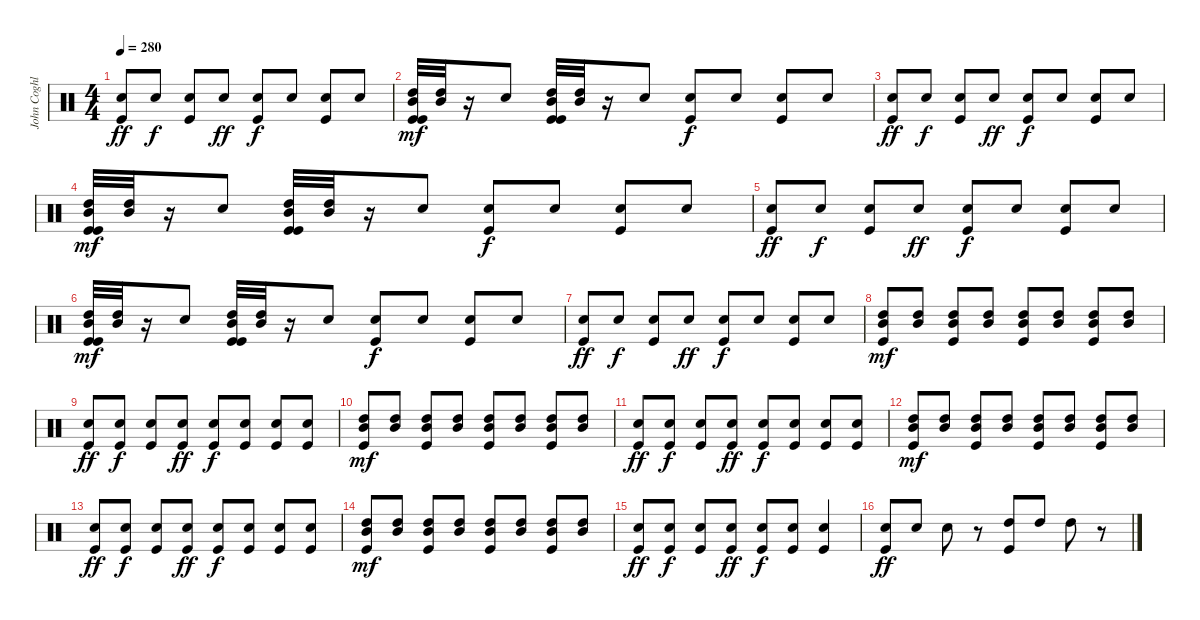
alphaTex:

\track ("John Coghlan" "John Coghl") {instrument percussion}
\staff {score}
\articulation defaults
\ts (4 4)
\tempo 280
\clef neutral
\ks c
("Electric Snare (hit)" "Kick (hit)").8{dy ff} "Electric Snare (hit)".8{dy f} ("Electric Snare (hit)" "Kick (hit)").8 "Electric Snare (hit)".8{dy ff} ("Electric Snare (hit)" "Kick (hit)").8{dy f} "Electric Snare (hit)".8 ("Electric Snare (hit)" "Kick (hit)").8 "Electric Snare (hit)".8 |
("Mid Tom (hit)" "Kick (hit)" "High Tom (hit)" "Kick (hit)").32{dy mf} ("Mid Tom (hit)" "High Tom (hit)").32 r.16 "Electric Snare (hit)".8 ("Mid Tom (hit)" "Kick (hit)" "High Tom (hit)" "Kick (hit)").32 ("Mid Tom (hit)" "High Tom (hit)").32 r.16 "Electric Snare (hit)".8 ("Electric Snare (hit)" "Kick (hit)").8{dy f} "Electric Snare (hit)".8 ("Electric Snare (hit)" "Kick (hit)").8 "Electric Snare (hit)".8 |
("Electric Snare (hit)" "Kick (hit)").8{dy ff} "Electric Snare (hit)".8{dy f} ("Electric Snare (hit)" "Kick (hit)").8 "Electric Snare (hit)".8{dy ff} ("Electric Snare (hit)" "Kick (hit)").8{dy f} "Electric Snare (hit)".8 ("Electric Snare (hit)" "Kick (hit)").8 "Electric Snare (hit)".8 |
("Mid Tom (hit)" "Kick (hit)" "High Tom (hit)" "Kick (hit)").32{dy mf} ("Mid Tom (hit)" "High Tom (hit)").32 r.16 "Electric Snare (hit)".8 ("Mid Tom (hit)" "Kick (hit)" "High Tom (hit)" "Kick (hit)").32 ("Mid Tom (hit)" "High Tom (hit)").32 r.16 "Electric Snare (hit)".8 ("Electric Snare (hit)" "Kick (hit)").8{dy f} "Electric Snare (hit)".8 ("Electric Snare (hit)" "Kick (hit)").8 "Electric Snare (hit)".8 |
("Electric Snare (hit)" "Kick (hit)").8{dy ff} "Electric Snare (hit)".8{dy f} ("Electric Snare (hit)" "Kick (hit)").8 "Electric Snare (hit)".8{dy ff} ("Electric Snare (hit)" "Kick (hit)").8{dy f} "Electric Snare (hit)".8 ("Electric Snare (hit)" "Kick (hit)").8 "Electric Snare (hit)".8 |
("Mid Tom (hit)" "Kick (hit)" "High Tom (hit)" "Kick (hit)").32{dy mf} ("Mid Tom (hit)" "High Tom (hit)").32 r.16 "Electric Snare (hit)".8 ("Mid Tom (hit)" "Kick (hit)" "High Tom (hit)" "Kick (hit)").32 ("Mid Tom (hit)" "High Tom (hit)").32 r.16 "Electric Snare (hit)".8 ("Electric Snare (hit)" "Kick (hit)").8{dy f} "Electric Snare (hit)".8 ("Electric Snare (hit)" "Kick (hit)").8 "Electric Snare (hit)".8 |
("Electric Snare (hit)" "Kick (hit)").8{dy ff} "Electric Snare (hit)".8{dy f} ("Electric Snare (hit)" "Kick (hit)").8 "Electric Snare (hit)".8{dy ff} ("Electric Snare (hit)" "Kick (hit)").8{dy f} "Electric Snare (hit)".8 ("Electric Snare (hit)" "Kick (hit)").8 "Electric Snare (hit)".8 |
("Mid Tom (hit)" "High Tom (hit)" "Kick (hit)").8{dy mf} ("Mid Tom (hit)" "High Tom (hit)").8 ("Mid Tom (hit)" "High Tom (hit)" "Kick (hit)").8 ("Mid Tom (hit)" "High Tom (hit)").8 ("Mid Tom (hit)" "High Tom (hit)" "Kick (hit)").8 ("Mid Tom (hit)" "High Tom (hit)").8 ("Mid Tom (hit)" "High Tom (hit)" "Kick (hit)").8 ("Mid Tom (hit)" "High Tom (hit)").8 |
("Electric Snare (hit)" "Kick (hit)").8{dy ff} ("Electric Snare (hit)" "Kick (hit)").8{dy f} ("Electric Snare (hit)" "Kick (hit)").8 ("Electric Snare (hit)" "Kick (hit)").8{dy ff} ("Electric Snare (hit)" "Kick (hit)").8{dy f} ("Electric Snare (hit)" "Kick (hit)").8 ("Electric Snare (hit)" "Kick (hit)").8 ("Electric Snare (hit)" "Kick (hit)").8 |
("Mid Tom (hit)" "High Tom (hit)" "Kick (hit)").8{dy mf} ("Mid Tom (hit)" "High Tom (hit)").8 ("Mid Tom (hit)" "High Tom (hit)" "Kick (hit)").8 ("Mid Tom (hit)" "High Tom (hit)").8 ("Mid Tom (hit)" "High Tom (hit)" "Kick (hit)").8 ("Mid Tom (hit)" "High Tom (hit)").8 ("Mid Tom (hit)" "High Tom (hit)" "Kick (hit)").8 ("Mid Tom (hit)" "High Tom (hit)").8 |
("Electric Snare (hit)" "Kick (hit)").8{dy ff} ("Electric Snare (hit)" "Kick (hit)").8{dy f} ("Electric Snare (hit)" "Kick (hit)").8 ("Electric Snare (hit)" "Kick (hit)").8{dy ff} ("Electric Snare (hit)" "Kick (hit)").8{dy f} ("Electric Snare (hit)" "Kick (hit)").8 ("Electric Snare (hit)" "Kick (hit)").8 ("Electric Snare (hit)" "Kick (hit)").8 |
("Mid Tom (hit)" "High Tom (hit)" "Kick (hit)").8{dy mf} ("Mid Tom (hit)" "High Tom (hit)").8 ("Mid Tom (hit)" "High Tom (hit)" "Kick (hit)").8 ("Mid Tom (hit)" "High Tom (hit)").8 ("Mid Tom (hit)" "High Tom (hit)" "Kick (hit)").8 ("Mid Tom (hit)" "High Tom (hit)").8 ("Mid Tom (hit)" "High Tom (hit)" "Kick (hit)").8 ("Mid Tom (hit)" "High Tom (hit)").8 |
("Electric Snare (hit)" "Kick (hit)").8{dy ff} ("Electric Snare (hit)" "Kick (hit)").8{dy f} ("Electric Snare (hit)" "Kick (hit)").8 ("Electric Snare (hit)" "Kick (hit)").8{dy ff} ("Electric Snare (hit)" "Kick (hit)").8{dy f} ("Electric Snare (hit)" "Kick (hit)").8 ("Electric Snare (hit)" "Kick (hit)").8 ("Electric Snare (hit)" "Kick (hit)").8 |
("Mid Tom (hit)" "High Tom (hit)" "Kick (hit)").8{dy mf} ("Mid Tom (hit)" "High Tom (hit)").8 ("Mid Tom (hit)" "High Tom (hit)" "Kick (hit)").8 ("Mid Tom (hit)" "High Tom (hit)").8 ("Mid Tom (hit)" "High Tom (hit)" "Kick (hit)").8 ("Mid Tom (hit)" "High Tom (hit)").8 ("Mid Tom (hit)" "High Tom (hit)" "Kick (hit)").8 ("Mid Tom (hit)" "High Tom (hit)").8 |
("Electric Snare (hit)" "Kick (hit)").8{dy ff} ("Electric Snare (hit)" "Kick (hit)").8{dy f} ("Electric Snare (hit)" "Kick (hit)").8 ("Electric Snare (hit)" "Kick (hit)").8{dy ff} ("Electric Snare (hit)" "Kick (hit)").8{dy f} ("Electric Snare (hit)" "Kick (hit)").8 ("Electric Snare (hit)" "Kick (hit)").4 |
("Electric Snare (hit)" "Kick (hit)").8{dy ff} "Electric Snare (hit)".8 "Electric Snare (hit)".8 r.8 ("High Tom (hit)" "Kick (hit)").8 "High Tom (hit)".8 "High Tom (hit)".8 r.8
